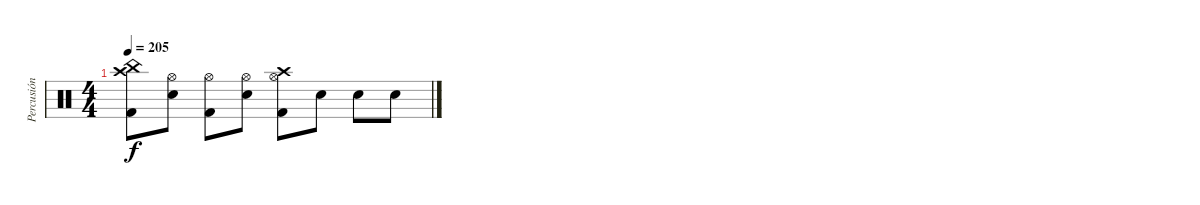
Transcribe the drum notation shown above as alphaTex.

\track ("Percusión" "Percusión") {instrument percussion}
\staff {score}
\articulation defaults
\ts (4 4)
\tempo 205
\clef neutral
\ks c
("China (hit)" "Crash high (hit)" "Kick (hit) 2").8{dy f} ("Hi-Hat (open)" "Electric Snare (hit)").8 ("Hi-Hat (open)" "Kick (hit) 2").8 ("Hi-Hat (open)" "Electric Snare (hit)").8 ("Crash high (hit)" "Hi-Hat (open)" "Kick (hit) 2").8 "Electric Snare (hit)".8 "Electric Snare (hit)".8 "Electric Snare (hit)".8
